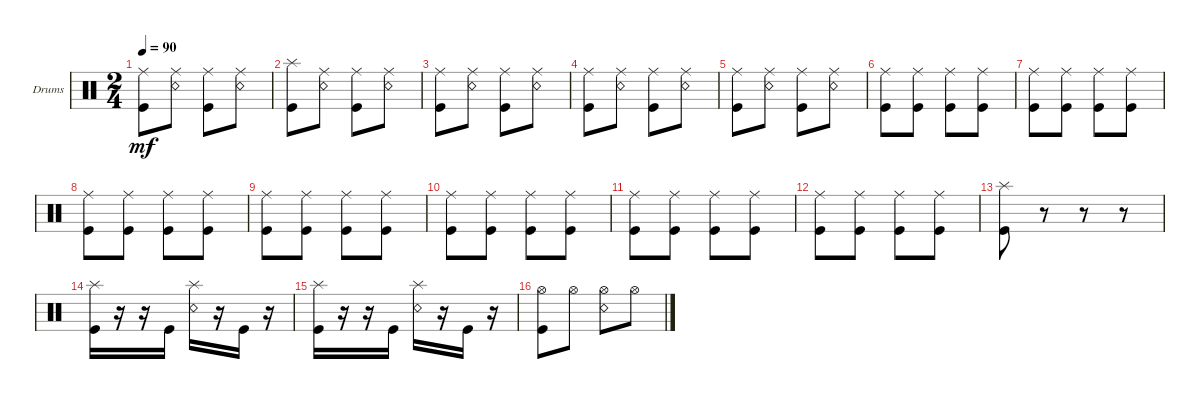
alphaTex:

\defaultSystemsLayout 4
\bracketExtendMode groupsimilarinstruments
\firstSystemTrackNameOrientation horizontal
\otherSystemsTrackNameOrientation horizontal
\track ("Drumkit" "Drums") {instrument percussion}
\staff {score}
\articulation defaults
\ts (2 4)
\tempo 90
\clef neutral
\ks c
("Kick (hit)" "Ride (middle)").8{dy mf} ("Ride (middle)" "Snare (rim shot)").8 ("Ride (middle)" "Kick (hit)").8 ("Ride (middle)" "Snare (rim shot)").8 |
("Kick (hit)" "Splash (hit)").8 ("Ride (middle)" "Snare (rim shot)").8 ("Ride (middle)" "Kick (hit)").8 ("Ride (middle)" "Snare (rim shot)").8 |
("Kick (hit)" "Ride (middle)").8 ("Ride (middle)" "Snare (rim shot)").8 ("Ride (middle)" "Kick (hit)").8 ("Ride (middle)" "Snare (rim shot)").8 |
("Kick (hit)" "Ride (middle)").8 ("Ride (middle)" "Snare (rim shot)").8 ("Ride (middle)" "Kick (hit)").8 ("Ride (middle)" "Snare (rim shot)").8 |
("Kick (hit)" "Ride (middle)").8 ("Ride (middle)" "Snare (rim shot)").8 ("Ride (middle)" "Kick (hit)").8 ("Ride (middle)" "Snare (rim shot)").8 |
("Kick (hit)" "Ride (middle)").8 ("Kick (hit)" "Ride (middle)").8 ("Kick (hit)" "Ride (middle)").8 ("Kick (hit)" "Ride (middle)").8 |
("Kick (hit)" "Ride (middle)").8 ("Kick (hit)" "Ride (middle)").8 ("Kick (hit)" "Ride (middle)").8 ("Kick (hit)" "Ride (middle)").8 |
("Kick (hit)" "Ride (middle)").8 ("Kick (hit)" "Ride (middle)").8 ("Kick (hit)" "Ride (middle)").8 ("Kick (hit)" "Ride (middle)").8 |
("Kick (hit)" "Ride (middle)").8 ("Kick (hit)" "Ride (middle)").8 ("Kick (hit)" "Ride (middle)").8 ("Kick (hit)" "Ride (middle)").8 |
("Kick (hit)" "Ride (middle)").8 ("Kick (hit)" "Ride (middle)").8 ("Kick (hit)" "Ride (middle)").8 ("Kick (hit)" "Ride (middle)").8 |
("Kick (hit)" "Ride (middle)").8 ("Kick (hit)" "Ride (middle)").8 ("Kick (hit)" "Ride (middle)").8 ("Kick (hit)" "Ride (middle)").8 |
("Kick (hit)" "Ride (middle)").8 ("Kick (hit)" "Ride (middle)").8 ("Kick (hit)" "Ride (middle)").8 ("Kick (hit)" "Ride (middle)").8 |
("Kick (hit)" "Splash (hit)").8 r.8 r.8 r.8 |
("Splash (hit)" "Kick (hit)").16 r.16 r.16 "Kick (hit)".16 ("Snare (rim shot)" "Splash (hit)").16 r.16 "Kick (hit)".16 r.16 |
("Splash (hit)" "Kick (hit)").16 r.16 r.16 "Kick (hit)".16 ("Snare (rim shot)" "Splash (hit)").16 r.16 "Kick (hit)".16 r.16 |
("Hi-Hat (open)" "Kick (hit)").8 "Hi-Hat (open)".8 ("Hi-Hat (open)" "Snare (rim shot)").8 "Hi-Hat (open)".8
